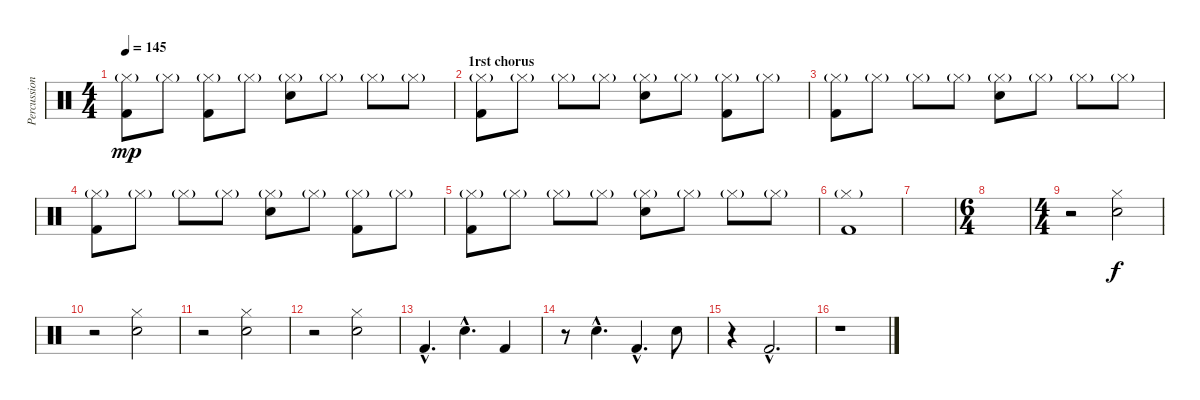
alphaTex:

\track ("Percussion (Bengerg)" "Percussion") {instrument percussion}
\staff {score}
\articulation defaults
\ts (4 4)
\tempo 145
\clef neutral
\ks c
("Hi-Hat (closed)"{g} "Kick (hit) 2").8{dy mp} "Hi-Hat (closed)"{g}.8 ("Hi-Hat (closed)"{g} "Kick (hit) 2").8 "Hi-Hat (closed)"{g}.8 ("Hi-Hat (closed)"{g} "Hand Clap (hit)").8 "Hi-Hat (closed)"{g}.8 "Hi-Hat (closed)"{g}.8 "Hi-Hat (closed)"{g}.8 |
\section ("" "1rst chorus")
("Hi-Hat (closed)"{g} "Kick (hit) 2").8 "Hi-Hat (closed)"{g}.8 "Hi-Hat (closed)"{g}.8 "Hi-Hat (closed)"{g}.8 ("Hi-Hat (closed)"{g} "Hand Clap (hit)").8 "Hi-Hat (closed)"{g}.8 ("Hi-Hat (closed)"{g} "Kick (hit) 2").8 "Hi-Hat (closed)"{g}.8 |
("Hi-Hat (closed)"{g} "Kick (hit) 2").8 "Hi-Hat (closed)"{g}.8 "Hi-Hat (closed)"{g}.8 "Hi-Hat (closed)"{g}.8 ("Hi-Hat (closed)"{g} "Hand Clap (hit)").8 "Hi-Hat (closed)"{g}.8 "Hi-Hat (closed)"{g}.8 "Hi-Hat (closed)"{g}.8 |
("Hi-Hat (closed)"{g} "Kick (hit) 2").8 "Hi-Hat (closed)"{g}.8 "Hi-Hat (closed)"{g}.8 "Hi-Hat (closed)"{g}.8 ("Hi-Hat (closed)"{g} "Hand Clap (hit)").8 "Hi-Hat (closed)"{g}.8 ("Hi-Hat (closed)"{g} "Kick (hit) 2").8 "Hi-Hat (closed)"{g}.8 |
("Hi-Hat (closed)"{g} "Kick (hit) 2").8 "Hi-Hat (closed)"{g}.8 "Hi-Hat (closed)"{g}.8 "Hi-Hat (closed)"{g}.8 ("Hi-Hat (closed)"{g} "Hand Clap (hit)").8 "Hi-Hat (closed)"{g}.8 "Hi-Hat (closed)"{g}.8 "Hi-Hat (closed)"{g}.8 |
("Hi-Hat (closed)"{g} "Kick (hit) 2").1 |
|
\ts (6 4)
|
\ts (4 4)
r.2 ("Hi-Hat (closed)" "Hand Clap (hit)").2{dy f} |
r.2 ("Hi-Hat (closed)" "Hand Clap (hit)").2 |
r.2 ("Hi-Hat (closed)" "Hand Clap (hit)").2 |
r.2 ("Hi-Hat (closed)" "Hand Clap (hit)").2 |
"Kick (hit) 2"{hac}.4{d} "Hand Clap (hit)"{hac}.4{d} "Kick (hit) 2".4 |
r.8 "Hand Clap (hit)"{hac}.4{d} "Kick (hit) 2"{hac}.4{d} "Hand Clap (hit)".8 |
r.4 "Kick (hit) 2"{hac}.2{d} |
r.1
